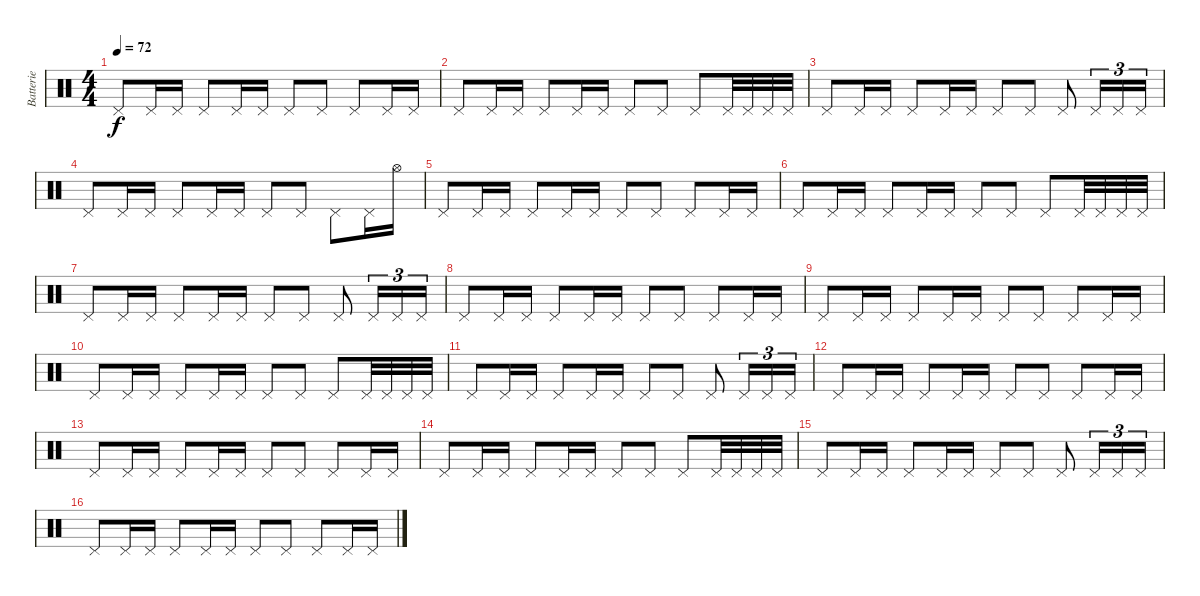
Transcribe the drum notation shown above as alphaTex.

\track ("Batterie" "Batterie") {instrument percussion}
\staff {score}
\articulation defaults
\ts (4 4)
\tempo 72
\clef neutral
\ks c "Pedal Hi-Hat (hit)".8{dy f} "Pedal Hi-Hat (hit)".16 "Pedal Hi-Hat (hit)".16 "Pedal Hi-Hat (hit)".8 "Pedal Hi-Hat (hit)".16 "Pedal Hi-Hat (hit)".16 "Pedal Hi-Hat (hit)".8 "Pedal Hi-Hat (hit)".8 "Pedal Hi-Hat (hit)".8 "Pedal Hi-Hat (hit)".16 "Pedal Hi-Hat (hit)".16
|
"Pedal Hi-Hat (hit)".8 "Pedal Hi-Hat (hit)".16 "Pedal Hi-Hat (hit)".16 "Pedal Hi-Hat (hit)".8 "Pedal Hi-Hat (hit)".16 "Pedal Hi-Hat (hit)".16 "Pedal Hi-Hat (hit)".8 "Pedal Hi-Hat (hit)".8 "Pedal Hi-Hat (hit)".8 "Pedal Hi-Hat (hit)".32 "Pedal Hi-Hat (hit)".32 "Pedal Hi-Hat (hit)".32 "Pedal Hi-Hat (hit)".32 |
"Pedal Hi-Hat (hit)".8 "Pedal Hi-Hat (hit)".16 "Pedal Hi-Hat (hit)".16 "Pedal Hi-Hat (hit)".8 "Pedal Hi-Hat (hit)".16 "Pedal Hi-Hat (hit)".16 "Pedal Hi-Hat (hit)".8 "Pedal Hi-Hat (hit)".8 "Pedal Hi-Hat (hit)".8 "Pedal Hi-Hat (hit)".16{tu (3 2)} "Pedal Hi-Hat (hit)".16{tu (3 2)} "Pedal Hi-Hat (hit)".16{tu (3 2)} |
"Pedal Hi-Hat (hit)".8 "Pedal Hi-Hat (hit)".16 "Pedal Hi-Hat (hit)".16 "Pedal Hi-Hat (hit)".8 "Pedal Hi-Hat (hit)".16 "Pedal Hi-Hat (hit)".16 "Pedal Hi-Hat (hit)".8 "Pedal Hi-Hat (hit)".8 "Pedal Hi-Hat (hit)".8 "Pedal Hi-Hat (hit)".16 "Hi-Hat (open)".16 |
"Pedal Hi-Hat (hit)".8 "Pedal Hi-Hat (hit)".16 "Pedal Hi-Hat (hit)".16 "Pedal Hi-Hat (hit)".8 "Pedal Hi-Hat (hit)".16 "Pedal Hi-Hat (hit)".16 "Pedal Hi-Hat (hit)".8 "Pedal Hi-Hat (hit)".8 "Pedal Hi-Hat (hit)".8 "Pedal Hi-Hat (hit)".16 "Pedal Hi-Hat (hit)".16 |
"Pedal Hi-Hat (hit)".8 "Pedal Hi-Hat (hit)".16 "Pedal Hi-Hat (hit)".16 "Pedal Hi-Hat (hit)".8 "Pedal Hi-Hat (hit)".16 "Pedal Hi-Hat (hit)".16 "Pedal Hi-Hat (hit)".8 "Pedal Hi-Hat (hit)".8 "Pedal Hi-Hat (hit)".8 "Pedal Hi-Hat (hit)".32 "Pedal Hi-Hat (hit)".32 "Pedal Hi-Hat (hit)".32 "Pedal Hi-Hat (hit)".32 |
"Pedal Hi-Hat (hit)".8 "Pedal Hi-Hat (hit)".16 "Pedal Hi-Hat (hit)".16 "Pedal Hi-Hat (hit)".8 "Pedal Hi-Hat (hit)".16 "Pedal Hi-Hat (hit)".16 "Pedal Hi-Hat (hit)".8 "Pedal Hi-Hat (hit)".8 "Pedal Hi-Hat (hit)".8 "Pedal Hi-Hat (hit)".16{tu (3 2)} "Pedal Hi-Hat (hit)".16{tu (3 2)} "Pedal Hi-Hat (hit)".16{tu (3 2)} |
"Pedal Hi-Hat (hit)".8 "Pedal Hi-Hat (hit)".16 "Pedal Hi-Hat (hit)".16 "Pedal Hi-Hat (hit)".8 "Pedal Hi-Hat (hit)".16 "Pedal Hi-Hat (hit)".16 "Pedal Hi-Hat (hit)".8 "Pedal Hi-Hat (hit)".8 "Pedal Hi-Hat (hit)".8 "Pedal Hi-Hat (hit)".16 "Pedal Hi-Hat (hit)".16 |
"Pedal Hi-Hat (hit)".8 "Pedal Hi-Hat (hit)".16 "Pedal Hi-Hat (hit)".16 "Pedal Hi-Hat (hit)".8 "Pedal Hi-Hat (hit)".16 "Pedal Hi-Hat (hit)".16 "Pedal Hi-Hat (hit)".8 "Pedal Hi-Hat (hit)".8 "Pedal Hi-Hat (hit)".8 "Pedal Hi-Hat (hit)".16 "Pedal Hi-Hat (hit)".16 |
"Pedal Hi-Hat (hit)".8 "Pedal Hi-Hat (hit)".16 "Pedal Hi-Hat (hit)".16 "Pedal Hi-Hat (hit)".8 "Pedal Hi-Hat (hit)".16 "Pedal Hi-Hat (hit)".16 "Pedal Hi-Hat (hit)".8 "Pedal Hi-Hat (hit)".8 "Pedal Hi-Hat (hit)".8 "Pedal Hi-Hat (hit)".32 "Pedal Hi-Hat (hit)".32 "Pedal Hi-Hat (hit)".32 "Pedal Hi-Hat (hit)".32 |
"Pedal Hi-Hat (hit)".8 "Pedal Hi-Hat (hit)".16 "Pedal Hi-Hat (hit)".16 "Pedal Hi-Hat (hit)".8 "Pedal Hi-Hat (hit)".16 "Pedal Hi-Hat (hit)".16 "Pedal Hi-Hat (hit)".8 "Pedal Hi-Hat (hit)".8 "Pedal Hi-Hat (hit)".8 "Pedal Hi-Hat (hit)".16{tu (3 2)} "Pedal Hi-Hat (hit)".16{tu (3 2)} "Pedal Hi-Hat (hit)".16{tu (3 2)} |
"Pedal Hi-Hat (hit)".8 "Pedal Hi-Hat (hit)".16 "Pedal Hi-Hat (hit)".16 "Pedal Hi-Hat (hit)".8 "Pedal Hi-Hat (hit)".16 "Pedal Hi-Hat (hit)".16 "Pedal Hi-Hat (hit)".8 "Pedal Hi-Hat (hit)".8 "Pedal Hi-Hat (hit)".8 "Pedal Hi-Hat (hit)".16 "Pedal Hi-Hat (hit)".16 |
"Pedal Hi-Hat (hit)".8 "Pedal Hi-Hat (hit)".16 "Pedal Hi-Hat (hit)".16 "Pedal Hi-Hat (hit)".8 "Pedal Hi-Hat (hit)".16 "Pedal Hi-Hat (hit)".16 "Pedal Hi-Hat (hit)".8 "Pedal Hi-Hat (hit)".8 "Pedal Hi-Hat (hit)".8 "Pedal Hi-Hat (hit)".16 "Pedal Hi-Hat (hit)".16 |
"Pedal Hi-Hat (hit)".8 "Pedal Hi-Hat (hit)".16 "Pedal Hi-Hat (hit)".16 "Pedal Hi-Hat (hit)".8 "Pedal Hi-Hat (hit)".16 "Pedal Hi-Hat (hit)".16 "Pedal Hi-Hat (hit)".8 "Pedal Hi-Hat (hit)".8 "Pedal Hi-Hat (hit)".8 "Pedal Hi-Hat (hit)".32 "Pedal Hi-Hat (hit)".32 "Pedal Hi-Hat (hit)".32 "Pedal Hi-Hat (hit)".32 |
"Pedal Hi-Hat (hit)".8 "Pedal Hi-Hat (hit)".16 "Pedal Hi-Hat (hit)".16 "Pedal Hi-Hat (hit)".8 "Pedal Hi-Hat (hit)".16 "Pedal Hi-Hat (hit)".16 "Pedal Hi-Hat (hit)".8 "Pedal Hi-Hat (hit)".8 "Pedal Hi-Hat (hit)".8 "Pedal Hi-Hat (hit)".16{tu (3 2)} "Pedal Hi-Hat (hit)".16{tu (3 2)} "Pedal Hi-Hat (hit)".16{tu (3 2)} |
"Pedal Hi-Hat (hit)".8 "Pedal Hi-Hat (hit)".16 "Pedal Hi-Hat (hit)".16 "Pedal Hi-Hat (hit)".8 "Pedal Hi-Hat (hit)".16 "Pedal Hi-Hat (hit)".16 "Pedal Hi-Hat (hit)".8 "Pedal Hi-Hat (hit)".8 "Pedal Hi-Hat (hit)".8 "Pedal Hi-Hat (hit)".16 "Pedal Hi-Hat (hit)".16
